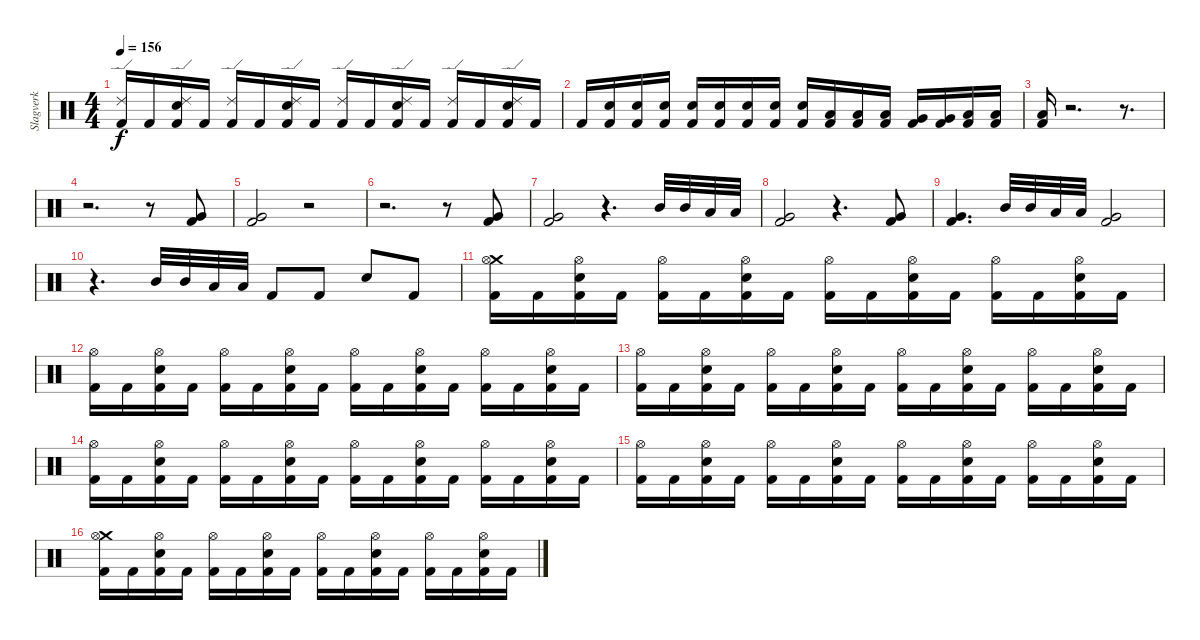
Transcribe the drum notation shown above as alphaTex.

\track ("Slagverk" "Slagverk") {instrument percussion}
\staff {score}
\articulation defaults
\ts (4 4)
\tempo 156
\clef neutral
\ks c
("Ride (edge) 2" "Kick (hit) 2").16{dy f} "Kick (hit) 2".16 ("Snare (hit) 2" "Ride (edge) 2" "Kick (hit) 2").16 "Kick (hit) 2".16 ("Ride (edge) 2" "Kick (hit) 2").16 "Kick (hit) 2".16 ("Snare (hit) 2" "Ride (edge) 2" "Kick (hit) 2").16 "Kick (hit) 2".16 ("Ride (edge) 2" "Kick (hit) 2").16 "Kick (hit) 2".16 ("Snare (hit) 2" "Ride (edge) 2" "Kick (hit) 2").16 "Kick (hit) 2".16 ("Ride (edge) 2" "Kick (hit) 2").16 "Kick (hit) 2".16 ("Snare (hit) 2" "Ride (edge) 2" "Kick (hit) 2").16 "Kick (hit) 2".16 |
"Kick (hit) 2".16 ("Snare (hit) 2" "Kick (hit) 2").16 ("Snare (hit) 2" "Kick (hit) 2").16 ("Snare (hit) 2" "Kick (hit) 2").16 ("Snare (hit) 2" "Kick (hit) 2").16 ("Snare (hit) 2" "Kick (hit) 2").16 ("Snare (hit) 2" "Kick (hit) 2").16 ("Snare (hit) 2" "Kick (hit) 2").16 ("Snare (hit) 2" "Kick (hit) 2").16 ("Low Tom (hit)" "Kick (hit) 2").16 ("Low Tom (hit)" "Kick (hit) 2").16 ("Low Tom (hit)" "Kick (hit) 2").16 ("Very Low Tom (hit)" "Kick (hit) 2").16 ("Very Low Tom (hit)" "Kick (hit) 2").16 ("Low Floor Tom (hit)" "Kick (hit) 2").16 ("Low Floor Tom (hit)" "Kick (hit) 2").16 |
("Low Floor Tom (hit)" "Kick (hit) 2").16 r.2{d} r.8{d} |
r.2{d} r.8 ("Very Low Tom (hit)" "Kick (hit) 2").8 |
("Very Low Tom (hit)" "Kick (hit) 2").2 r.2 |
r.2{d} r.8 ("Very Low Tom (hit)" "Kick (hit) 2").8 |
("Very Low Tom (hit)" "Kick (hit) 2").2 r.4{d} "Mid Tom (hit)".32 "Mid Tom (hit)".32 "Low Tom (hit)".32 "Low Tom (hit)".32 |
("Very Low Tom (hit)" "Kick (hit) 2").2 r.4{d} ("Very Low Tom (hit)" "Kick (hit) 2").8 |
("Kick (hit) 2" "Very Low Tom (hit)").4{d} "Mid Tom (hit)".32 "Mid Tom (hit)".32 "Low Tom (hit)".32 "Low Tom (hit)".32 ("Very Low Tom (hit)" "Kick (hit) 2").2 |
r.4{d} "Mid Tom (hit)".32 "Mid Tom (hit)".32 "Low Tom (hit)".32 "Low Tom (hit)".32 "Kick (hit) 2".8 "Kick (hit) 2".8 "Electric Snare (hit)".8 "Kick (hit) 2".8 |
("Crash medium (hit)" "Hi-Hat (open)" "Kick (hit) 2").16 "Kick (hit) 2".16 ("Snare (hit) 2" "Hi-Hat (open)" "Kick (hit) 2").16 "Kick (hit) 2".16 ("Hi-Hat (open)" "Kick (hit) 2").16 "Kick (hit) 2".16 ("Snare (hit) 2" "Hi-Hat (open)" "Kick (hit) 2").16 "Kick (hit) 2".16 ("Hi-Hat (open)" "Kick (hit) 2").16 "Kick (hit) 2".16 ("Snare (hit) 2" "Hi-Hat (open)" "Kick (hit) 2").16 "Kick (hit) 2".16 ("Hi-Hat (open)" "Kick (hit) 2").16 "Kick (hit) 2".16 ("Snare (hit) 2" "Hi-Hat (open)" "Kick (hit) 2").16 "Kick (hit) 2".16 |
("Hi-Hat (open)" "Kick (hit) 2").16 "Kick (hit) 2".16 ("Snare (hit) 2" "Hi-Hat (open)" "Kick (hit) 2").16 "Kick (hit) 2".16 ("Hi-Hat (open)" "Kick (hit) 2").16 "Kick (hit) 2".16 ("Snare (hit) 2" "Hi-Hat (open)" "Kick (hit) 2").16 "Kick (hit) 2".16 ("Hi-Hat (open)" "Kick (hit) 2").16 "Kick (hit) 2".16 ("Snare (hit) 2" "Hi-Hat (open)" "Kick (hit) 2").16 "Kick (hit) 2".16 ("Hi-Hat (open)" "Kick (hit) 2").16 "Kick (hit) 2".16 ("Snare (hit) 2" "Hi-Hat (open)" "Kick (hit) 2").16 "Kick (hit) 2".16 |
("Hi-Hat (open)" "Kick (hit) 2").16 "Kick (hit) 2".16 ("Snare (hit) 2" "Hi-Hat (open)" "Kick (hit) 2").16 "Kick (hit) 2".16 ("Hi-Hat (open)" "Kick (hit) 2").16 "Kick (hit) 2".16 ("Snare (hit) 2" "Hi-Hat (open)" "Kick (hit) 2").16 "Kick (hit) 2".16 ("Hi-Hat (open)" "Kick (hit) 2").16 "Kick (hit) 2".16 ("Snare (hit) 2" "Hi-Hat (open)" "Kick (hit) 2").16 "Kick (hit) 2".16 ("Hi-Hat (open)" "Kick (hit) 2").16 "Kick (hit) 2".16 ("Snare (hit) 2" "Hi-Hat (open)" "Kick (hit) 2").16 "Kick (hit) 2".16 |
("Hi-Hat (open)" "Kick (hit) 2").16 "Kick (hit) 2".16 ("Snare (hit) 2" "Hi-Hat (open)" "Kick (hit) 2").16 "Kick (hit) 2".16 ("Hi-Hat (open)" "Kick (hit) 2").16 "Kick (hit) 2".16 ("Snare (hit) 2" "Hi-Hat (open)" "Kick (hit) 2").16 "Kick (hit) 2".16 ("Hi-Hat (open)" "Kick (hit) 2").16 "Kick (hit) 2".16 ("Snare (hit) 2" "Hi-Hat (open)" "Kick (hit) 2").16 "Kick (hit) 2".16 ("Hi-Hat (open)" "Kick (hit) 2").16 "Kick (hit) 2".16 ("Snare (hit) 2" "Hi-Hat (open)" "Kick (hit) 2").16 "Kick (hit) 2".16 |
("Hi-Hat (open)" "Kick (hit) 2").16 "Kick (hit) 2".16 ("Snare (hit) 2" "Hi-Hat (open)" "Kick (hit) 2").16 "Kick (hit) 2".16 ("Hi-Hat (open)" "Kick (hit) 2").16 "Kick (hit) 2".16 ("Snare (hit) 2" "Hi-Hat (open)" "Kick (hit) 2").16 "Kick (hit) 2".16 ("Hi-Hat (open)" "Kick (hit) 2").16 "Kick (hit) 2".16 ("Snare (hit) 2" "Hi-Hat (open)" "Kick (hit) 2").16 "Kick (hit) 2".16 ("Hi-Hat (open)" "Kick (hit) 2").16 "Kick (hit) 2".16 ("Snare (hit) 2" "Hi-Hat (open)" "Kick (hit) 2").16 "Kick (hit) 2".16 |
("Crash medium (hit)" "Hi-Hat (open)" "Kick (hit) 2").16 "Kick (hit) 2".16 ("Snare (hit) 2" "Hi-Hat (open)" "Kick (hit) 2").16 "Kick (hit) 2".16 ("Hi-Hat (open)" "Kick (hit) 2").16 "Kick (hit) 2".16 ("Snare (hit) 2" "Hi-Hat (open)" "Kick (hit) 2").16 "Kick (hit) 2".16 ("Hi-Hat (open)" "Kick (hit) 2").16 "Kick (hit) 2".16 ("Snare (hit) 2" "Hi-Hat (open)" "Kick (hit) 2").16 "Kick (hit) 2".16 ("Hi-Hat (open)" "Kick (hit) 2").16 "Kick (hit) 2".16 ("Snare (hit) 2" "Hi-Hat (open)" "Kick (hit) 2").16 "Kick (hit) 2".16
